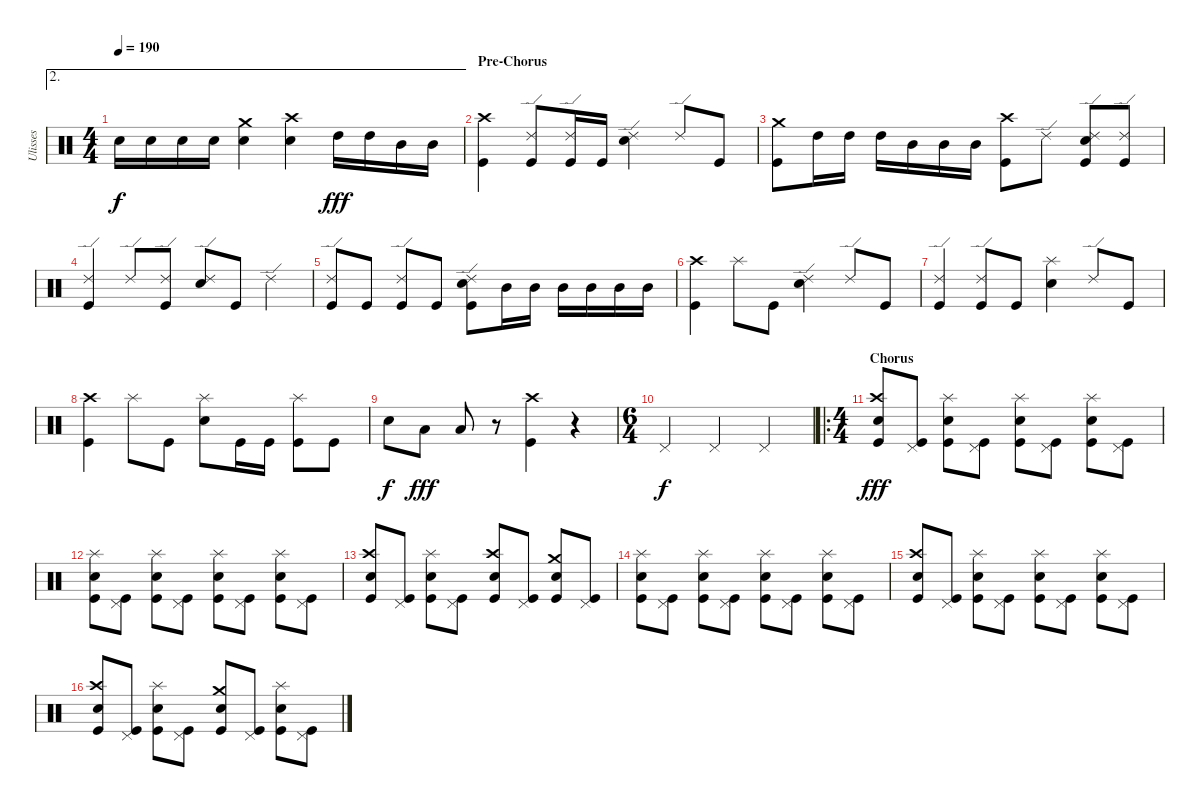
\track ("Ulisses" "Ulisses") {instrument percussion}
\staff {score}
\articulation defaults
\ae 2
\ts (4 4)
\tempo 190
\clef neutral
\ks c "Electric Snare (hit)".16{dy f} "Electric Snare (hit)".16 "Electric Snare (hit)".16 "Electric Snare (hit)".16
("Crash medium (hit)" "Electric Snare (hit)").4 ("Crash high (hit)" "Electric Snare (hit)").4 "High Tom (hit)".16{dy fff} "High Tom (hit)".16 "Mid Tom (hit)".16 "Mid Tom (hit)".16 |
\section ("" "Pre-Chorus")
("Crash high (hit)" "Kick (hit)").4 ("Ride (edge) 2" "Kick (hit)").8 ("Ride (edge) 2" "Kick (hit)").16 "Kick (hit)".16 ("Ride (edge) 2" "Electric Snare (hit)").4 "Ride (edge) 2".8 "Kick (hit)".8 |
("Crash medium (hit)" "Kick (hit)").8 "High Tom (hit)".16 "High Tom (hit)".16 "High Tom (hit)".16 "Mid Tom (hit)".16 "Mid Tom (hit)".16 "Mid Tom (hit)".16 ("Crash high (hit)" "Kick (hit)").8 "Ride (edge) 2".8 ("Ride (edge) 2" "Electric Snare (hit)" "Kick (hit)").8 ("Ride (edge) 2" "Kick (hit)").8 |
("Ride (edge) 2" "Kick (hit)").4 "Ride (edge) 2".8 ("Ride (edge) 2" "Kick (hit)").8 ("Ride (edge) 2" "Electric Snare (hit)").8 "Kick (hit)".8 "Ride (edge) 2".4 |
("Ride (edge) 2" "Kick (hit)").8 "Kick (hit)".8 ("Ride (edge) 2" "Kick (hit)").8 "Kick (hit)".8 ("Ride (edge) 2" "Electric Snare (hit)" "Kick (hit)").8 "Mid Tom (hit)".16 "Mid Tom (hit)".16 "Mid Tom (hit)".16 "Mid Tom (hit)".16 "Mid Tom (hit)".16 "Mid Tom (hit)".16 |
("Crash high (hit)" "Kick (hit)").4 "Splash (hit)".8 "Kick (hit)".8 ("Ride (edge) 2" "Electric Snare (hit)").4 "Ride (edge) 2".8 "Kick (hit)".8 |
("Ride (edge) 2" "Kick (hit)").4 ("Ride (edge) 2" "Kick (hit)").8 "Kick (hit)".8 ("Splash (hit)" "Electric Snare (hit)").4 "Ride (edge) 2".8 "Kick (hit)".8 |
("Crash high (hit)" "Kick (hit)").4 "Splash (hit)".8 "Kick (hit)".8 ("Splash (hit)" "Electric Snare (hit)").8 "Kick (hit)".16 "Kick (hit)".16 ("Splash (hit)" "Kick (hit)").8 "Kick (hit)".8 |
"Electric Snare (hit)".8{dy f} "Low Tom (hit)".8{dy fff} "Low Tom (hit)".8 r.8 ("Crash high (hit)" "Kick (hit)").4 r.4{volume 0} |
\ts (6 4)
"Pedal Hi-Hat (hit)".2{dy f volume 16} "Pedal Hi-Hat (hit)".2 "Pedal Hi-Hat (hit)".2 |
\ro
\ts (4 4)
\section ("" "Chorus")
("Crash high (hit)" "Electric Snare (hit)" "Kick (hit)").8{dy fff} ("Pedal Hi-Hat (hit)" "Kick (hit)").8 ("Splash (hit)" "Electric Snare (hit)" "Kick (hit)").8 ("Pedal Hi-Hat (hit)" "Kick (hit)").8 ("Splash (hit)" "Electric Snare (hit)" "Kick (hit)").8 ("Pedal Hi-Hat (hit)" "Kick (hit)").8 ("Splash (hit)" "Electric Snare (hit)" "Kick (hit)").8 ("Pedal Hi-Hat (hit)" "Kick (hit)").8 |
("Splash (hit)" "Electric Snare (hit)" "Kick (hit)").8 ("Pedal Hi-Hat (hit)" "Kick (hit)").8 ("Splash (hit)" "Electric Snare (hit)" "Kick (hit)").8 ("Pedal Hi-Hat (hit)" "Kick (hit)").8 ("Splash (hit)" "Electric Snare (hit)" "Kick (hit)").8 ("Pedal Hi-Hat (hit)" "Kick (hit)").8 ("Splash (hit)" "Electric Snare (hit)" "Kick (hit)").8 ("Pedal Hi-Hat (hit)" "Kick (hit)").8 |
("Crash high (hit)" "Electric Snare (hit)" "Kick (hit)").8 ("Pedal Hi-Hat (hit)" "Kick (hit)").8 ("Splash (hit)" "Electric Snare (hit)" "Kick (hit)").8 ("Pedal Hi-Hat (hit)" "Kick (hit)").8 ("Crash high (hit)" "Electric Snare (hit)" "Kick (hit)").8 ("Pedal Hi-Hat (hit)" "Kick (hit)").8 ("Crash medium (hit)" "Electric Snare (hit)" "Kick (hit)").8 ("Pedal Hi-Hat (hit)" "Kick (hit)").8 |
("Splash (hit)" "Electric Snare (hit)" "Kick (hit)").8 ("Pedal Hi-Hat (hit)" "Kick (hit)").8 ("Splash (hit)" "Electric Snare (hit)" "Kick (hit)").8 ("Pedal Hi-Hat (hit)" "Kick (hit)").8 ("Splash (hit)" "Electric Snare (hit)" "Kick (hit)").8 ("Pedal Hi-Hat (hit)" "Kick (hit)").8 ("Splash (hit)" "Electric Snare (hit)" "Kick (hit)").8 ("Pedal Hi-Hat (hit)" "Kick (hit)").8 |
("Crash high (hit)" "Electric Snare (hit)" "Kick (hit)").8 ("Pedal Hi-Hat (hit)" "Kick (hit)").8 ("Splash (hit)" "Electric Snare (hit)" "Kick (hit)").8 ("Pedal Hi-Hat (hit)" "Kick (hit)").8 ("Splash (hit)" "Electric Snare (hit)" "Kick (hit)").8 ("Pedal Hi-Hat (hit)" "Kick (hit)").8 ("Splash (hit)" "Electric Snare (hit)" "Kick (hit)").8 ("Pedal Hi-Hat (hit)" "Kick (hit)").8 |
("Crash high (hit)" "Electric Snare (hit)" "Kick (hit)").8 ("Pedal Hi-Hat (hit)" "Kick (hit)").8 ("Splash (hit)" "Electric Snare (hit)" "Kick (hit)").8 ("Pedal Hi-Hat (hit)" "Kick (hit)").8 ("Crash medium (hit)" "Electric Snare (hit)" "Kick (hit)").8 ("Pedal Hi-Hat (hit)" "Kick (hit)").8 ("Splash (hit)" "Electric Snare (hit)" "Kick (hit)").8 ("Pedal Hi-Hat (hit)" "Kick (hit)").8
